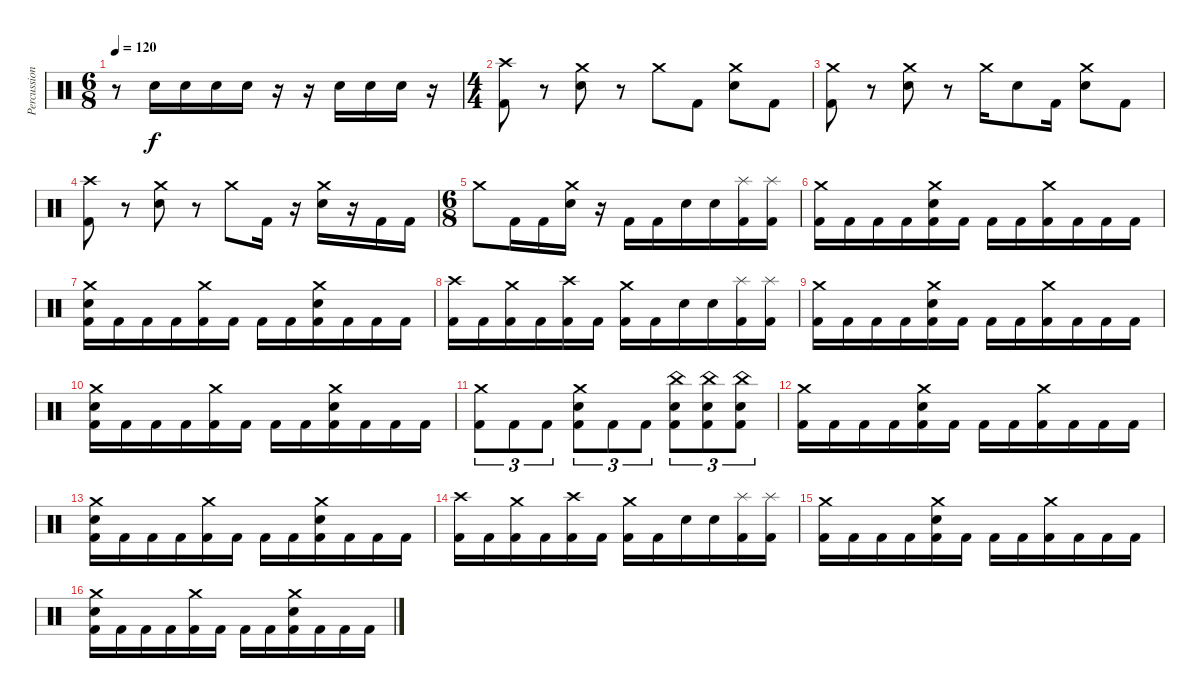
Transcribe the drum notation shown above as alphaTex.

\track ("Percussion" "Percussion") {instrument percussion}
\staff {score}
\articulation defaults
\ts (6 8)
\tempo 120
\clef neutral
\ks c
r.8{dy f} "Snare (hit) 2".16 "Snare (hit) 2".16 "Snare (hit) 2".16 "Snare (hit) 2".16 r.16 r.16 "Snare (hit) 2".16 "Snare (hit) 2".16 "Snare (hit) 2".16 r.16 |
\ts (4 4)
("Crash high (hit)" "Kick (hit) 2").8 r.8 ("Crash medium (hit)" "Snare (hit) 2").8 r.8 "Crash medium (hit)".8 "Kick (hit) 2".8 ("Crash medium (hit)" "Snare (hit) 2").8 "Kick (hit) 2".8 |
("Crash medium (hit)" "Kick (hit) 2").8 r.8 ("Crash medium (hit)" "Snare (hit) 2").8 r.8 "Crash medium (hit)".16 "Snare (hit) 2".8 "Kick (hit) 2".16 ("Crash medium (hit)" "Snare (hit) 2").8 "Kick (hit) 2".8 |
("Crash high (hit)" "Kick (hit) 2").8 r.8 ("Crash medium (hit)" "Snare (hit) 2").8 r.8 "Crash medium (hit)".8 "Kick (hit) 2".16 r.16 ("Crash medium (hit)" "Snare (hit) 2").16 r.16 "Kick (hit) 2".16 "Kick (hit) 2".16 |
\ts (6 8)
"Crash medium (hit)".8 "Kick (hit) 2".16 "Kick (hit) 2".16 ("Crash medium (hit)" "Snare (hit) 2").16 r.16 "Kick (hit) 2".16 "Kick (hit) 2".16 "Snare (hit) 2".16 "Snare (hit) 2".16 ("Splash (hit)" "Kick (hit) 2").16 ("Splash (hit)" "Kick (hit) 2").16 |
("Crash medium (hit)" "Kick (hit) 2").16 "Kick (hit) 2".16 "Kick (hit) 2".16 "Kick (hit) 2".16 ("Crash medium (hit)" "Snare (hit) 2" "Kick (hit) 2").16 "Kick (hit) 2".16 "Kick (hit) 2".16 "Kick (hit) 2".16 ("Crash medium (hit)" "Kick (hit) 2").16 "Kick (hit) 2".16 "Kick (hit) 2".16 "Kick (hit) 2".16 |
("Crash medium (hit)" "Snare (hit) 2" "Kick (hit) 2").16 "Kick (hit) 2".16 "Kick (hit) 2".16 "Kick (hit) 2".16 ("Crash medium (hit)" "Kick (hit) 2").16 "Kick (hit) 2".16 "Kick (hit) 2".16 "Kick (hit) 2".16 ("Crash medium (hit)" "Snare (hit) 2" "Kick (hit) 2").16 "Kick (hit) 2".16 "Kick (hit) 2".16 "Kick (hit) 2".16 |
("Crash high (hit)" "Kick (hit) 2").16 "Kick (hit) 2".16 ("Crash medium (hit)" "Kick (hit) 2").16 "Kick (hit) 2".16 ("Crash high (hit)" "Kick (hit) 2").16 "Kick (hit) 2".16 ("Crash medium (hit)" "Kick (hit) 2").16 "Kick (hit) 2".16 "Snare (hit) 2".16 "Snare (hit) 2".16 ("Splash (hit)" "Kick (hit) 2").16 ("Splash (hit)" "Kick (hit) 2").16 |
("Crash medium (hit)" "Kick (hit) 2").16 "Kick (hit) 2".16 "Kick (hit) 2".16 "Kick (hit) 2".16 ("Crash medium (hit)" "Snare (hit) 2" "Kick (hit) 2").16 "Kick (hit) 2".16 "Kick (hit) 2".16 "Kick (hit) 2".16 ("Crash medium (hit)" "Kick (hit) 2").16 "Kick (hit) 2".16 "Kick (hit) 2".16 "Kick (hit) 2".16 |
("Crash medium (hit)" "Snare (hit) 2" "Kick (hit) 2").16 "Kick (hit) 2".16 "Kick (hit) 2".16 "Kick (hit) 2".16 ("Crash medium (hit)" "Kick (hit) 2").16 "Kick (hit) 2".16 "Kick (hit) 2".16 "Kick (hit) 2".16 ("Crash medium (hit)" "Snare (hit) 2" "Kick (hit) 2").16 "Kick (hit) 2".16 "Kick (hit) 2".16 "Kick (hit) 2".16 |
("Crash medium (hit)" "Kick (hit) 2").8{tu (3 2)} "Kick (hit) 2".8{tu (3 2)} "Kick (hit) 2".8{tu (3 2)} ("Crash medium (hit)" "Snare (hit) 2" "Kick (hit) 2").8{tu (3 2)} "Kick (hit) 2".8{tu (3 2)} "Kick (hit) 2".8{tu (3 2)} ("China (hit)" "Snare (hit) 2" "Kick (hit) 2").8{tu (3 2)} ("China (hit)" "Snare (hit) 2" "Kick (hit) 2").8{tu (3 2)} ("China (hit)" "Snare (hit) 2" "Kick (hit) 2").8{tu (3 2)} |
("Crash medium (hit)" "Kick (hit) 2").16 "Kick (hit) 2".16 "Kick (hit) 2".16 "Kick (hit) 2".16 ("Crash medium (hit)" "Snare (hit) 2" "Kick (hit) 2").16 "Kick (hit) 2".16 "Kick (hit) 2".16 "Kick (hit) 2".16 ("Crash medium (hit)" "Kick (hit) 2").16 "Kick (hit) 2".16 "Kick (hit) 2".16 "Kick (hit) 2".16 |
("Crash medium (hit)" "Snare (hit) 2" "Kick (hit) 2").16 "Kick (hit) 2".16 "Kick (hit) 2".16 "Kick (hit) 2".16 ("Crash medium (hit)" "Kick (hit) 2").16 "Kick (hit) 2".16 "Kick (hit) 2".16 "Kick (hit) 2".16 ("Crash medium (hit)" "Snare (hit) 2" "Kick (hit) 2").16 "Kick (hit) 2".16 "Kick (hit) 2".16 "Kick (hit) 2".16 |
("Crash high (hit)" "Kick (hit) 2").16 "Kick (hit) 2".16 ("Crash medium (hit)" "Kick (hit) 2").16 "Kick (hit) 2".16 ("Crash high (hit)" "Kick (hit) 2").16 "Kick (hit) 2".16 ("Crash medium (hit)" "Kick (hit) 2").16 "Kick (hit) 2".16 "Snare (hit) 2".16 "Snare (hit) 2".16 ("Splash (hit)" "Kick (hit) 2").16 ("Splash (hit)" "Kick (hit) 2").16 |
("Crash medium (hit)" "Kick (hit) 2").16 "Kick (hit) 2".16 "Kick (hit) 2".16 "Kick (hit) 2".16 ("Crash medium (hit)" "Snare (hit) 2" "Kick (hit) 2").16 "Kick (hit) 2".16 "Kick (hit) 2".16 "Kick (hit) 2".16 ("Crash medium (hit)" "Kick (hit) 2").16 "Kick (hit) 2".16 "Kick (hit) 2".16 "Kick (hit) 2".16 |
("Crash medium (hit)" "Snare (hit) 2" "Kick (hit) 2").16 "Kick (hit) 2".16 "Kick (hit) 2".16 "Kick (hit) 2".16 ("Crash medium (hit)" "Kick (hit) 2").16 "Kick (hit) 2".16 "Kick (hit) 2".16 "Kick (hit) 2".16 ("Crash medium (hit)" "Snare (hit) 2" "Kick (hit) 2").16 "Kick (hit) 2".16 "Kick (hit) 2".16 "Kick (hit) 2".16
